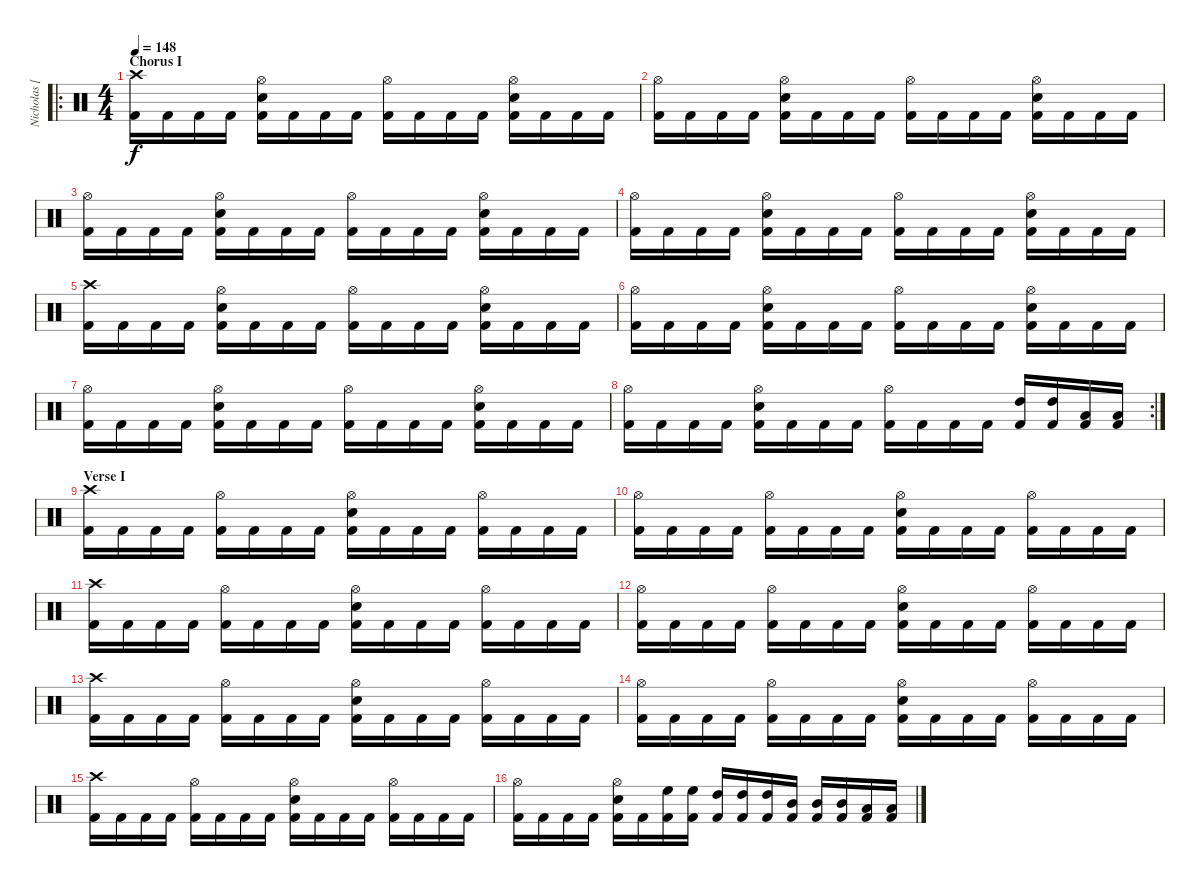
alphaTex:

\track ("Nicholas [Percussion]" "Nicholas [") {instrument percussion}
\staff {score}
\articulation defaults
\ro
\ts (4 4)
\section ("" "Chorus I")
\tempo 148
\clef neutral
\ks c
("Kick (hit) 2" "Crash high (hit)").16{dy f} "Kick (hit) 2".16 "Kick (hit) 2".16 "Kick (hit) 2".16 ("Kick (hit) 2" "Snare (hit) 2" "Hi-Hat (open)").16 "Kick (hit) 2".16 "Kick (hit) 2".16 "Kick (hit) 2".16 ("Kick (hit) 2" "Hi-Hat (open)").16 "Kick (hit) 2".16 "Kick (hit) 2".16 "Kick (hit) 2".16 ("Kick (hit) 2" "Snare (hit) 2" "Hi-Hat (open)").16 "Kick (hit) 2".16 "Kick (hit) 2".16 "Kick (hit) 2".16 |
("Kick (hit) 2" "Hi-Hat (open)").16 "Kick (hit) 2".16 "Kick (hit) 2".16 "Kick (hit) 2".16 ("Kick (hit) 2" "Snare (hit) 2" "Hi-Hat (open)").16 "Kick (hit) 2".16 "Kick (hit) 2".16 "Kick (hit) 2".16 ("Kick (hit) 2" "Hi-Hat (open)").16 "Kick (hit) 2".16 "Kick (hit) 2".16 "Kick (hit) 2".16 ("Kick (hit) 2" "Snare (hit) 2" "Hi-Hat (open)").16 "Kick (hit) 2".16 "Kick (hit) 2".16 "Kick (hit) 2".16 |
("Kick (hit) 2" "Hi-Hat (open)").16 "Kick (hit) 2".16 "Kick (hit) 2".16 "Kick (hit) 2".16 ("Kick (hit) 2" "Snare (hit) 2" "Hi-Hat (open)").16 "Kick (hit) 2".16 "Kick (hit) 2".16 "Kick (hit) 2".16 ("Kick (hit) 2" "Hi-Hat (open)").16 "Kick (hit) 2".16 "Kick (hit) 2".16 "Kick (hit) 2".16 ("Kick (hit) 2" "Snare (hit) 2" "Hi-Hat (open)").16 "Kick (hit) 2".16 "Kick (hit) 2".16 "Kick (hit) 2".16 |
("Kick (hit) 2" "Hi-Hat (open)").16 "Kick (hit) 2".16 "Kick (hit) 2".16 "Kick (hit) 2".16 ("Kick (hit) 2" "Snare (hit) 2" "Hi-Hat (open)").16 "Kick (hit) 2".16 "Kick (hit) 2".16 "Kick (hit) 2".16 ("Kick (hit) 2" "Hi-Hat (open)").16 "Kick (hit) 2".16 "Kick (hit) 2".16 "Kick (hit) 2".16 ("Kick (hit) 2" "Snare (hit) 2" "Hi-Hat (open)").16 "Kick (hit) 2".16 "Kick (hit) 2".16 "Kick (hit) 2".16 |
("Kick (hit) 2" "Crash high (hit)").16 "Kick (hit) 2".16 "Kick (hit) 2".16 "Kick (hit) 2".16 ("Kick (hit) 2" "Snare (hit) 2" "Hi-Hat (open)").16 "Kick (hit) 2".16 "Kick (hit) 2".16 "Kick (hit) 2".16 ("Kick (hit) 2" "Hi-Hat (open)").16 "Kick (hit) 2".16 "Kick (hit) 2".16 "Kick (hit) 2".16 ("Kick (hit) 2" "Snare (hit) 2" "Hi-Hat (open)").16 "Kick (hit) 2".16 "Kick (hit) 2".16 "Kick (hit) 2".16 |
("Kick (hit) 2" "Hi-Hat (open)").16 "Kick (hit) 2".16 "Kick (hit) 2".16 "Kick (hit) 2".16 ("Kick (hit) 2" "Snare (hit) 2" "Hi-Hat (open)").16 "Kick (hit) 2".16 "Kick (hit) 2".16 "Kick (hit) 2".16 ("Kick (hit) 2" "Hi-Hat (open)").16 "Kick (hit) 2".16 "Kick (hit) 2".16 "Kick (hit) 2".16 ("Kick (hit) 2" "Snare (hit) 2" "Hi-Hat (open)").16 "Kick (hit) 2".16 "Kick (hit) 2".16 "Kick (hit) 2".16 |
("Kick (hit) 2" "Hi-Hat (open)").16 "Kick (hit) 2".16 "Kick (hit) 2".16 "Kick (hit) 2".16 ("Kick (hit) 2" "Snare (hit) 2" "Hi-Hat (open)").16 "Kick (hit) 2".16 "Kick (hit) 2".16 "Kick (hit) 2".16 ("Kick (hit) 2" "Hi-Hat (open)").16 "Kick (hit) 2".16 "Kick (hit) 2".16 "Kick (hit) 2".16 ("Kick (hit) 2" "Snare (hit) 2" "Hi-Hat (open)").16 "Kick (hit) 2".16 "Kick (hit) 2".16 "Kick (hit) 2".16 |
\rc 2
("Kick (hit) 2" "Hi-Hat (open)").16 "Kick (hit) 2".16 "Kick (hit) 2".16 "Kick (hit) 2".16 ("Kick (hit) 2" "Snare (hit) 2" "Hi-Hat (open)").16 "Kick (hit) 2".16 "Kick (hit) 2".16 "Kick (hit) 2".16 ("Kick (hit) 2" "Hi-Hat (open)").16 "Kick (hit) 2".16 "Kick (hit) 2".16 "Kick (hit) 2".16 ("Kick (hit) 2" "High Tom (hit)").16 ("Kick (hit) 2" "High Tom (hit)").16 ("Kick (hit) 2" "Low Tom (hit)").16 ("Kick (hit) 2" "Low Tom (hit)").16 |
\section ("" "Verse I")
("Kick (hit) 2" "Crash high (hit)").16 "Kick (hit) 2".16 "Kick (hit) 2".16 "Kick (hit) 2".16 ("Kick (hit) 2" "Hi-Hat (open)").16 "Kick (hit) 2".16 "Kick (hit) 2".16 "Kick (hit) 2".16 ("Kick (hit) 2" "Snare (hit) 2" "Hi-Hat (open)").16 "Kick (hit) 2".16 "Kick (hit) 2".16 "Kick (hit) 2".16 ("Kick (hit) 2" "Hi-Hat (open)").16 "Kick (hit) 2".16 "Kick (hit) 2".16 "Kick (hit) 2".16 |
("Kick (hit) 2" "Hi-Hat (open)").16 "Kick (hit) 2".16 "Kick (hit) 2".16 "Kick (hit) 2".16 ("Kick (hit) 2" "Hi-Hat (open)").16 "Kick (hit) 2".16 "Kick (hit) 2".16 "Kick (hit) 2".16 ("Kick (hit) 2" "Snare (hit) 2" "Hi-Hat (open)").16 "Kick (hit) 2".16 "Kick (hit) 2".16 "Kick (hit) 2".16 ("Kick (hit) 2" "Hi-Hat (open)").16 "Kick (hit) 2".16 "Kick (hit) 2".16 "Kick (hit) 2".16 |
("Kick (hit) 2" "Crash high (hit)").16 "Kick (hit) 2".16 "Kick (hit) 2".16 "Kick (hit) 2".16 ("Kick (hit) 2" "Hi-Hat (open)").16 "Kick (hit) 2".16 "Kick (hit) 2".16 "Kick (hit) 2".16 ("Kick (hit) 2" "Snare (hit) 2" "Hi-Hat (open)").16 "Kick (hit) 2".16 "Kick (hit) 2".16 "Kick (hit) 2".16 ("Kick (hit) 2" "Hi-Hat (open)").16 "Kick (hit) 2".16 "Kick (hit) 2".16 "Kick (hit) 2".16 |
("Kick (hit) 2" "Hi-Hat (open)").16 "Kick (hit) 2".16 "Kick (hit) 2".16 "Kick (hit) 2".16 ("Kick (hit) 2" "Hi-Hat (open)").16 "Kick (hit) 2".16 "Kick (hit) 2".16 "Kick (hit) 2".16 ("Kick (hit) 2" "Snare (hit) 2" "Hi-Hat (open)").16 "Kick (hit) 2".16 "Kick (hit) 2".16 "Kick (hit) 2".16 ("Kick (hit) 2" "Hi-Hat (open)").16 "Kick (hit) 2".16 "Kick (hit) 2".16 "Kick (hit) 2".16 |
("Kick (hit) 2" "Crash high (hit)").16 "Kick (hit) 2".16 "Kick (hit) 2".16 "Kick (hit) 2".16 ("Kick (hit) 2" "Hi-Hat (open)").16 "Kick (hit) 2".16 "Kick (hit) 2".16 "Kick (hit) 2".16 ("Kick (hit) 2" "Snare (hit) 2" "Hi-Hat (open)").16 "Kick (hit) 2".16 "Kick (hit) 2".16 "Kick (hit) 2".16 ("Kick (hit) 2" "Hi-Hat (open)").16 "Kick (hit) 2".16 "Kick (hit) 2".16 "Kick (hit) 2".16 |
("Kick (hit) 2" "Hi-Hat (open)").16 "Kick (hit) 2".16 "Kick (hit) 2".16 "Kick (hit) 2".16 ("Kick (hit) 2" "Hi-Hat (open)").16 "Kick (hit) 2".16 "Kick (hit) 2".16 "Kick (hit) 2".16 ("Kick (hit) 2" "Snare (hit) 2" "Hi-Hat (open)").16 "Kick (hit) 2".16 "Kick (hit) 2".16 "Kick (hit) 2".16 ("Kick (hit) 2" "Hi-Hat (open)").16 "Kick (hit) 2".16 "Kick (hit) 2".16 "Kick (hit) 2".16 |
("Kick (hit) 2" "Crash high (hit)").16 "Kick (hit) 2".16 "Kick (hit) 2".16 "Kick (hit) 2".16 ("Kick (hit) 2" "Hi-Hat (open)").16 "Kick (hit) 2".16 "Kick (hit) 2".16 "Kick (hit) 2".16 ("Kick (hit) 2" "Snare (hit) 2" "Hi-Hat (open)").16 "Kick (hit) 2".16 "Kick (hit) 2".16 "Kick (hit) 2".16 ("Kick (hit) 2" "Hi-Hat (open)").16 "Kick (hit) 2".16 "Kick (hit) 2".16 "Kick (hit) 2".16 |
("Kick (hit) 2" "Hi-Hat (open)").16 "Kick (hit) 2".16 "Kick (hit) 2".16 "Kick (hit) 2".16 ("Kick (hit) 2" "Snare (hit) 2" "Hi-Hat (open)").16 "Kick (hit) 2".16 ("Kick (hit) 2" "High Floor Tom (hit)").16 ("Kick (hit) 2" "High Floor Tom (hit)").16 ("Kick (hit) 2" "High Tom (hit)").16 ("Kick (hit) 2" "High Tom (hit)").16 ("Kick (hit) 2" "High Tom (hit)").16 ("Kick (hit) 2" "Mid Tom (hit)").16 ("Kick (hit) 2" "Mid Tom (hit)").16 ("Kick (hit) 2" "Mid Tom (hit)").16 ("Kick (hit) 2" "Low Tom (hit)").16 ("Kick (hit) 2" "Low Tom (hit)").16
